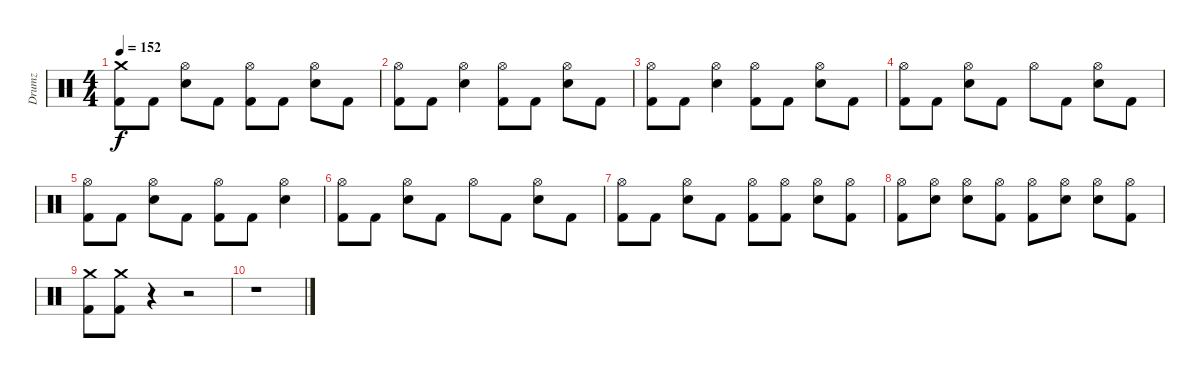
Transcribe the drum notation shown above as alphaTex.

\track ("Drumz" "Drumz") {instrument percussion}
\staff {score}
\articulation defaults
\ts (4 4)
\tempo 152
\clef neutral
\ks c
("Kick (hit) 2" "Crash medium (hit)").8{dy f} "Kick (hit) 2".8 ("Snare (hit) 2" "Hi-Hat (open)").8 "Kick (hit) 2".8 ("Kick (hit) 2" "Hi-Hat (open)").8 "Kick (hit) 2".8 ("Snare (hit) 2" "Hi-Hat (open)").8 "Kick (hit) 2".8 |
("Kick (hit) 2" "Hi-Hat (open)").8 "Kick (hit) 2".8 ("Snare (hit) 2" "Hi-Hat (open)").4 ("Kick (hit) 2" "Hi-Hat (open)").8 "Kick (hit) 2".8 ("Snare (hit) 2" "Hi-Hat (open)").8 "Kick (hit) 2".8 |
("Kick (hit) 2" "Hi-Hat (open)").8 "Kick (hit) 2".8 ("Snare (hit) 2" "Hi-Hat (open)").4 ("Kick (hit) 2" "Hi-Hat (open)").8 "Kick (hit) 2".8 ("Snare (hit) 2" "Hi-Hat (open)").8 "Kick (hit) 2".8 |
("Kick (hit) 2" "Hi-Hat (open)").8 "Kick (hit) 2".8 ("Snare (hit) 2" "Hi-Hat (open)").8 "Kick (hit) 2".8 "Hi-Hat (open)".8 "Kick (hit) 2".8 ("Snare (hit) 2" "Hi-Hat (open)").8 "Kick (hit) 2".8 |
("Kick (hit) 2" "Hi-Hat (open)").8 "Kick (hit) 2".8 ("Snare (hit) 2" "Hi-Hat (open)").8 "Kick (hit) 2".8 ("Kick (hit) 2" "Hi-Hat (open)").8 "Kick (hit) 2".8 ("Snare (hit) 2" "Hi-Hat (open)").4 |
("Kick (hit) 2" "Hi-Hat (open)").8 "Kick (hit) 2".8 ("Snare (hit) 2" "Hi-Hat (open)").8 "Kick (hit) 2".8 "Hi-Hat (open)".8 "Kick (hit) 2".8 ("Snare (hit) 2" "Hi-Hat (open)").8 "Kick (hit) 2".8 |
("Kick (hit) 2" "Hi-Hat (open)").8 "Kick (hit) 2".8 ("Snare (hit) 2" "Hi-Hat (open)").8 "Kick (hit) 2".8 ("Kick (hit) 2" "Hi-Hat (open)").8 ("Kick (hit) 2" "Hi-Hat (open)").8 ("Snare (hit) 2" "Hi-Hat (open)").8 ("Kick (hit) 2" "Hi-Hat (open)").8 |
("Kick (hit) 2" "Hi-Hat (open)").8 ("Snare (hit) 2" "Hi-Hat (open)").8 ("Snare (hit) 2" "Hi-Hat (open)").8 ("Kick (hit) 2" "Hi-Hat (open)").8 ("Kick (hit) 2" "Hi-Hat (open)").8 ("Snare (hit) 2" "Hi-Hat (open)").8 ("Snare (hit) 2" "Hi-Hat (open)").8 ("Kick (hit) 2" "Hi-Hat (open)").8 |
("Kick (hit) 2" "Crash medium (hit)").8 ("Kick (hit) 2" "Crash medium (hit)").8 r.4 r.2 |
r.1
